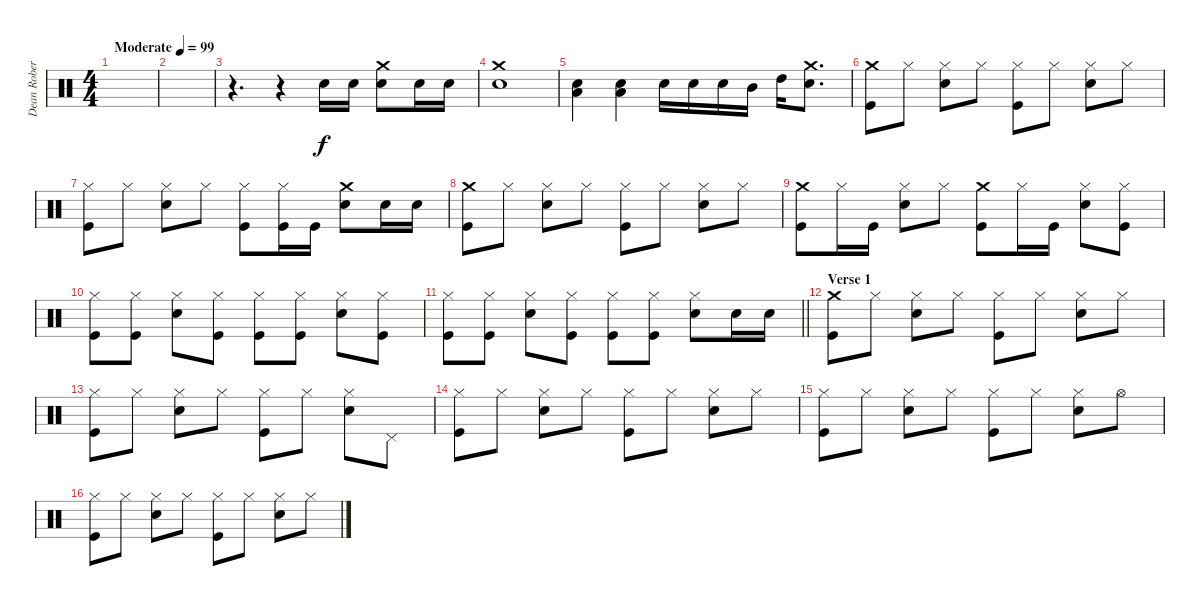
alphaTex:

\track ("Dean Roberts" "Dean Rober") {instrument percussion}
\staff {score}
\articulation defaults
\ts (4 4)
\tempo (99 "Moderate")
\clef neutral
\ks c
|
|
r.4{d} r.4 "Electric Snare (hit)".16 "Electric Snare (hit)".16 ("Crash medium (hit)" "Electric Snare (hit)").8 "Electric Snare (hit)".16 "Electric Snare (hit)".16 |
("Crash medium (hit)" "Electric Snare (hit)").1 |
("Low Floor Tom (hit)" "Electric Snare (hit)").4 ("Low Floor Tom (hit)" "Electric Snare (hit)").4 "Electric Snare (hit)".16 "Electric Snare (hit)".16 "Electric Snare (hit)".16 "Mid Tom (hit)".16 "High Tom (hit)".16 ("Crash medium (hit)" "Electric Snare (hit)").8{d} |
("Crash medium (hit)" "Kick (hit)").8 "Hi-Hat (closed)".8 ("Hi-Hat (closed)" "Electric Snare (hit)").8 "Hi-Hat (closed)".8 ("Hi-Hat (closed)" "Kick (hit)").8 "Hi-Hat (closed)".8 ("Hi-Hat (closed)" "Electric Snare (hit)").8 "Hi-Hat (closed)".8 |
("Hi-Hat (closed)" "Kick (hit)").8 "Hi-Hat (closed)".8 ("Hi-Hat (closed)" "Electric Snare (hit)").8 "Hi-Hat (closed)".8 ("Hi-Hat (closed)" "Kick (hit)").8 ("Hi-Hat (closed)" "Kick (hit)").16 "Kick (hit)".16 ("Crash medium (hit)" "Electric Snare (hit)").8 "Electric Snare (hit)".16 "Electric Snare (hit)".16 |
("Crash medium (hit)" "Kick (hit)").8 "Hi-Hat (closed)".8 ("Hi-Hat (closed)" "Electric Snare (hit)").8 "Hi-Hat (closed)".8 ("Hi-Hat (closed)" "Kick (hit)").8 "Hi-Hat (closed)".8 ("Hi-Hat (closed)" "Electric Snare (hit)").8 "Hi-Hat (closed)".8 |
("Crash medium (hit)" "Kick (hit)").8 "Hi-Hat (closed)".16 "Kick (hit)".16 ("Hi-Hat (closed)" "Electric Snare (hit)").8 "Hi-Hat (closed)".8 ("Crash medium (hit)" "Kick (hit)").8 "Hi-Hat (closed)".16 "Kick (hit)".16 ("Hi-Hat (closed)" "Electric Snare (hit)").8 ("Hi-Hat (closed)" "Kick (hit)").8 |
("Hi-Hat (closed)" "Kick (hit)").8 ("Hi-Hat (closed)" "Kick (hit)").8 ("Hi-Hat (closed)" "Electric Snare (hit)").8 ("Hi-Hat (closed)" "Kick (hit)").8 ("Hi-Hat (closed)" "Kick (hit)").8 ("Hi-Hat (closed)" "Kick (hit)").8 ("Hi-Hat (closed)" "Electric Snare (hit)").8 ("Hi-Hat (closed)" "Kick (hit)").8 |
\barLineRight lightlight
("Hi-Hat (closed)" "Kick (hit)").8 ("Hi-Hat (closed)" "Kick (hit)").8 ("Hi-Hat (closed)" "Electric Snare (hit)").8 ("Hi-Hat (closed)" "Kick (hit)").8 ("Hi-Hat (closed)" "Kick (hit)").8 ("Hi-Hat (closed)" "Kick (hit)").8 ("Hi-Hat (closed)" "Electric Snare (hit)").8 "Electric Snare (hit)".16 "Electric Snare (hit)".16 |
\section ("" "Verse 1")
("Crash medium (hit)" "Kick (hit)").8 "Hi-Hat (closed)".8 ("Hi-Hat (closed)" "Electric Snare (hit)").8 "Hi-Hat (closed)".8 ("Hi-Hat (closed)" "Kick (hit)").8 "Hi-Hat (closed)".8 ("Hi-Hat (closed)" "Electric Snare (hit)").8 "Hi-Hat (closed)".8 |
("Hi-Hat (closed)" "Kick (hit)").8 "Hi-Hat (closed)".8 ("Hi-Hat (closed)" "Electric Snare (hit)").8 "Hi-Hat (closed)".8 ("Hi-Hat (closed)" "Kick (hit)").8 "Hi-Hat (closed)".8 ("Hi-Hat (closed)" "Electric Snare (hit)").8 "Pedal Hi-Hat (hit)".8 |
("Hi-Hat (closed)" "Kick (hit)").8 "Hi-Hat (closed)".8 ("Hi-Hat (closed)" "Electric Snare (hit)").8 "Hi-Hat (closed)".8 ("Hi-Hat (closed)" "Kick (hit)").8 "Hi-Hat (closed)".8 ("Hi-Hat (closed)" "Electric Snare (hit)").8 "Hi-Hat (closed)".8 |
("Hi-Hat (closed)" "Kick (hit)").8 "Hi-Hat (closed)".8 ("Hi-Hat (closed)" "Electric Snare (hit)").8 "Hi-Hat (closed)".8 ("Hi-Hat (closed)" "Kick (hit)").8 "Hi-Hat (closed)".8 ("Hi-Hat (closed)" "Electric Snare (hit)").8 "Hi-Hat (open)".8 |
("Hi-Hat (closed)" "Kick (hit)").8 "Hi-Hat (closed)".8 ("Hi-Hat (closed)" "Electric Snare (hit)").8 "Hi-Hat (closed)".8 ("Hi-Hat (closed)" "Kick (hit)").8 "Hi-Hat (closed)".8 ("Hi-Hat (closed)" "Electric Snare (hit)").8 "Hi-Hat (closed)".8
